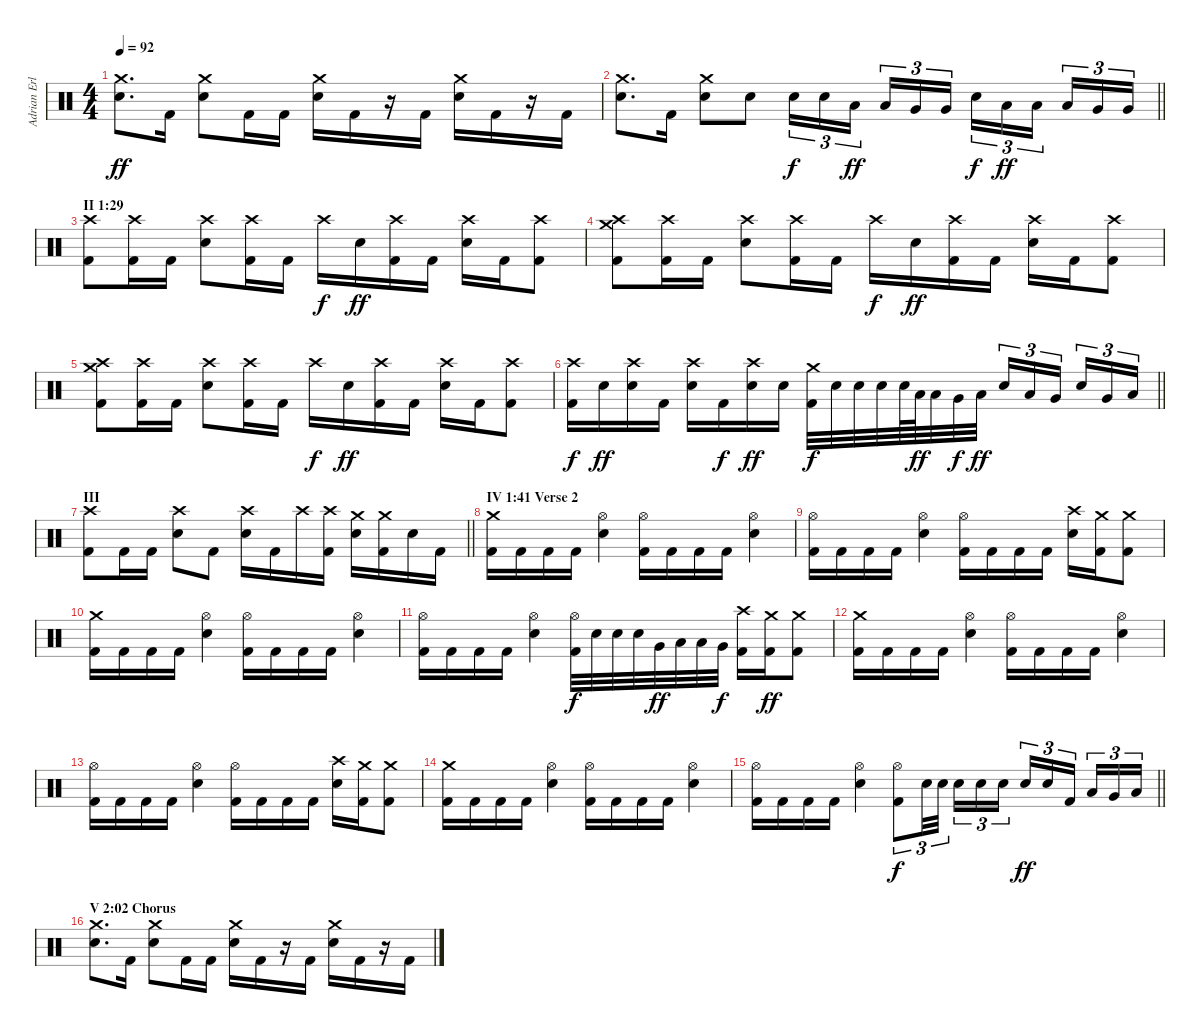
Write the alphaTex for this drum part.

\track ("Adrian Erlandsson (drums)" "Adrian Erl") {instrument percussion}
\staff {score}
\articulation defaults
\ts (4 4)
\tempo 92
\clef neutral
\ks c
("Crash medium (hit)" "Electric Snare (hit)").8{d dy ff} "Kick (hit) 2".16 ("Crash medium (hit)" "Electric Snare (hit)").8 "Kick (hit) 2".16 "Kick (hit) 2".16 ("Crash medium (hit)" "Electric Snare (hit)").16 "Kick (hit) 2".16 r.16 "Kick (hit) 2".16 ("Crash medium (hit)" "Electric Snare (hit)").16 "Kick (hit) 2".16 r.16 "Kick (hit) 2".16 |
\barLineRight lightlight
("Crash medium (hit)" "Electric Snare (hit)").8{d} "Kick (hit) 2".16 ("Crash medium (hit)" "Electric Snare (hit)").8 "Electric Snare (hit)".8 "Electric Snare (hit)".16{tu (3 2) dy f} "Electric Snare (hit)".16{tu (3 2)} "Low Tom (hit)".16{tu (3 2) dy ff beam splitsecondary} "Low Tom (hit)".16{tu (3 2)} "Very Low Tom (hit)".16{tu (3 2)} "Very Low Tom (hit)".16{tu (3 2)} "Electric Snare (hit)".16{tu (3 2) dy f} "Low Tom (hit)".16{tu (3 2) dy ff} "Low Tom (hit)".16{tu (3 2) beam splitsecondary} "Low Tom (hit)".16{tu (3 2)} "Very Low Tom (hit)".16{tu (3 2)} "Very Low Tom (hit)".16{tu (3 2)} |
\section ("" "II 1:29")
("Crash high (hit)" "Kick (hit) 2").8 ("Crash high (hit)" "Kick (hit) 2").16 "Kick (hit) 2".16 ("Crash high (hit)" "Electric Snare (hit)").8 ("Crash high (hit)" "Kick (hit) 2").16 "Kick (hit) 2".16 "Crash high (hit)".16{dy f} "Electric Snare (hit)".16{dy ff} ("Crash high (hit)" "Kick (hit) 2").16 "Kick (hit) 2".16 ("Crash high (hit)" "Electric Snare (hit)").16 "Kick (hit) 2".16 ("Crash high (hit)" "Kick (hit) 2").8 |
("Crash high (hit)" "Crash medium (hit)" "Kick (hit) 2").8 ("Crash high (hit)" "Kick (hit) 2").16 "Kick (hit) 2".16 ("Crash high (hit)" "Electric Snare (hit)").8 ("Crash high (hit)" "Kick (hit) 2").16 "Kick (hit) 2".16 "Crash high (hit)".16{dy f} "Electric Snare (hit)".16{dy ff} ("Crash high (hit)" "Kick (hit) 2").16 "Kick (hit) 2".16 ("Crash high (hit)" "Electric Snare (hit)").16 "Kick (hit) 2".16 ("Crash high (hit)" "Kick (hit) 2").8 |
("Crash high (hit)" "Crash medium (hit)" "Kick (hit) 2").8 ("Crash high (hit)" "Kick (hit) 2").16 "Kick (hit) 2".16 ("Crash high (hit)" "Electric Snare (hit)").8 ("Crash high (hit)" "Kick (hit) 2").16 "Kick (hit) 2".16 "Crash high (hit)".16{dy f} "Electric Snare (hit)".16{dy ff} ("Crash high (hit)" "Kick (hit) 2").16 "Kick (hit) 2".16 ("Crash high (hit)" "Electric Snare (hit)").16 "Kick (hit) 2".16 ("Crash high (hit)" "Kick (hit) 2").8 |
\barLineRight lightlight
("Crash high (hit)" "Kick (hit) 2").16{dy f} "Electric Snare (hit)".16{dy ff} ("Crash high (hit)" "Electric Snare (hit)").16 "Kick (hit) 2".16 ("Crash high (hit)" "Electric Snare (hit)").16 "Kick (hit) 2".16{dy f} ("Crash high (hit)" "Electric Snare (hit)").16{dy ff} "Electric Snare (hit)".16 ("Crash medium (hit)" "Kick (hit) 2").32{dy f} "Electric Snare (hit)".32 "Electric Snare (hit)".32 "Electric Snare (hit)".32 "Electric Snare (hit)".64 "Low Tom (hit)".64{dy ff} "Low Tom (hit)".32 "Very Low Tom (hit)".32{dy f} "Low Tom (hit)".32{dy ff} "Electric Snare (hit)".16{tu (3 2)} "Low Tom (hit)".16{tu (3 2)} "Very Low Tom (hit)".16{tu (3 2) beam splitsecondary} "Electric Snare (hit)".16{tu (3 2)} "Very Low Tom (hit)".16{tu (3 2)} "Low Floor Tom (hit)".16{tu (3 2)} |
\section ("" "III ")
\barLineRight lightlight
("Crash high (hit)" "Kick (hit) 2").8 "Kick (hit) 2".16 "Kick (hit) 2".16 ("Crash high (hit)" "Electric Snare (hit)").8 "Kick (hit) 2".8 ("Crash high (hit)" "Electric Snare (hit)").16 "Kick (hit) 2".16 "Crash high (hit)".16 ("Crash high (hit)" "Kick (hit) 2").16 ("Crash medium (hit)" "Electric Snare (hit)").16 ("Crash medium (hit)" "Kick (hit) 2").16 "Electric Snare (hit)".16 "Kick (hit) 2".16 |
\section ("" "IV 1:41 Verse 2")
("Crash medium (hit)" "Kick (hit) 2").16 "Kick (hit) 2".16 "Kick (hit) 2".16 "Kick (hit) 2".16 ("Hi-Hat (open)" "Electric Snare (hit)").4 ("Hi-Hat (open)" "Kick (hit) 2").16 "Kick (hit) 2".16 "Kick (hit) 2".16 "Kick (hit) 2".16 ("Hi-Hat (open)" "Electric Snare (hit)").4 |
("Hi-Hat (open)" "Kick (hit) 2").16 "Kick (hit) 2".16 "Kick (hit) 2".16 "Kick (hit) 2".16 ("Hi-Hat (open)" "Electric Snare (hit)").4 ("Hi-Hat (open)" "Kick (hit) 2").16 "Kick (hit) 2".16 "Kick (hit) 2".16 "Kick (hit) 2".16 ("Crash high (hit)" "Electric Snare (hit)").16 ("Crash medium (hit)" "Kick (hit) 2").16 ("Crash medium (hit)" "Kick (hit) 2").8 |
("Crash medium (hit)" "Kick (hit) 2").16 "Kick (hit) 2".16 "Kick (hit) 2".16 "Kick (hit) 2".16 ("Hi-Hat (open)" "Electric Snare (hit)").4 ("Hi-Hat (open)" "Kick (hit) 2").16 "Kick (hit) 2".16 "Kick (hit) 2".16 "Kick (hit) 2".16 ("Hi-Hat (open)" "Electric Snare (hit)").4 |
("Hi-Hat (open)" "Kick (hit) 2").16 "Kick (hit) 2".16 "Kick (hit) 2".16 "Kick (hit) 2".16 ("Hi-Hat (open)" "Electric Snare (hit)").4 ("Hi-Hat (open)" "Kick (hit) 2").32{dy f} "Electric Snare (hit)".32 "Electric Snare (hit)".32 "Electric Snare (hit)".32 "Very Low Tom (hit)".32{dy ff} "Low Floor Tom (hit)".32 "Low Floor Tom (hit)".32 "Very Low Tom (hit)".32{dy f} ("Crash high (hit)" "Kick (hit) 2").16 ("Crash medium (hit)" "Kick (hit) 2").16{dy ff} ("Crash medium (hit)" "Kick (hit) 2").8 |
("Crash medium (hit)" "Kick (hit) 2").16 "Kick (hit) 2".16 "Kick (hit) 2".16 "Kick (hit) 2".16 ("Hi-Hat (open)" "Electric Snare (hit)").4 ("Hi-Hat (open)" "Kick (hit) 2").16 "Kick (hit) 2".16 "Kick (hit) 2".16 "Kick (hit) 2".16 ("Hi-Hat (open)" "Electric Snare (hit)").4 |
("Hi-Hat (open)" "Kick (hit) 2").16 "Kick (hit) 2".16 "Kick (hit) 2".16 "Kick (hit) 2".16 ("Hi-Hat (open)" "Electric Snare (hit)").4 ("Hi-Hat (open)" "Kick (hit) 2").16 "Kick (hit) 2".16 "Kick (hit) 2".16 "Kick (hit) 2".16 ("Crash high (hit)" "Electric Snare (hit)").16 ("Crash medium (hit)" "Kick (hit) 2").16 ("Crash medium (hit)" "Kick (hit) 2").8 |
("Crash medium (hit)" "Kick (hit) 2").16 "Kick (hit) 2".16 "Kick (hit) 2".16 "Kick (hit) 2".16 ("Hi-Hat (open)" "Electric Snare (hit)").4 ("Hi-Hat (open)" "Kick (hit) 2").16 "Kick (hit) 2".16 "Kick (hit) 2".16 "Kick (hit) 2".16 ("Hi-Hat (open)" "Electric Snare (hit)").4 |
\barLineRight lightlight
("Hi-Hat (open)" "Kick (hit) 2").16 "Kick (hit) 2".16 "Kick (hit) 2".16 "Kick (hit) 2".16 ("Hi-Hat (open)" "Electric Snare (hit)").4 ("Hi-Hat (open)" "Kick (hit) 2").8{tu (3 2) dy f} "Electric Snare (hit)".32{tu (3 2)} "Electric Snare (hit)".32{tu (3 2) beam splitsecondary} "Electric Snare (hit)".16{tu (3 2)} "Electric Snare (hit)".16{tu (3 2)} "Electric Snare (hit)".16{tu (3 2)} "Electric Snare (hit)".16{tu (3 2) dy ff} "Electric Snare (hit)".16{tu (3 2)} "Kick (hit) 2".16{tu (3 2) beam splitsecondary} "Low Tom (hit)".16{tu (3 2)} "Very Low Tom (hit)".16{tu (3 2)} "Low Floor Tom (hit)".16{tu (3 2)} |
\section ("" "V 2:02 Chorus")
("Crash medium (hit)" "Electric Snare (hit)").8{d} "Kick (hit) 2".16 ("Crash medium (hit)" "Electric Snare (hit)").8 "Kick (hit) 2".16 "Kick (hit) 2".16 ("Crash medium (hit)" "Electric Snare (hit)").16 "Kick (hit) 2".16 r.16 "Kick (hit) 2".16 ("Crash medium (hit)" "Electric Snare (hit)").16 "Kick (hit) 2".16 r.16 "Kick (hit) 2".16
